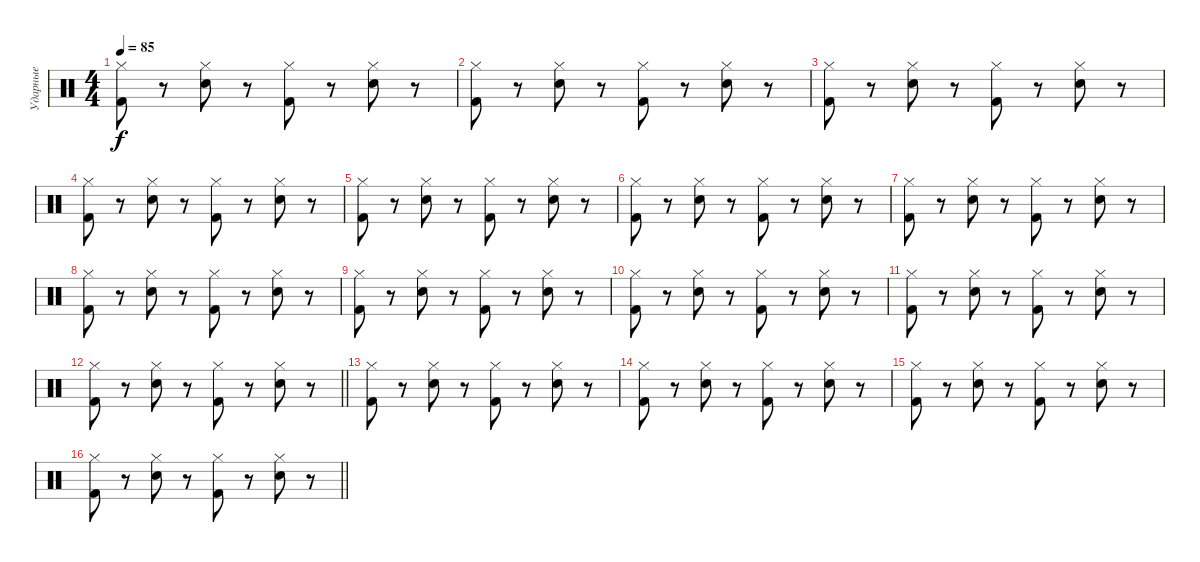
\track ("Ударные" "Ударные") {instrument percussion}
\staff {score}
\articulation defaults
\ts (4 4)
\tempo 85
\clef neutral
\ks c
("Kick (hit) 2" "Hi-Hat (closed)").8{dy f} r.8 ("Electric Snare (hit)" "Hi-Hat (closed)").8 r.8 ("Kick (hit) 2" "Hi-Hat (closed)").8 r.8 ("Electric Snare (hit)" "Hi-Hat (closed)").8 r.8 |
("Kick (hit) 2" "Hi-Hat (closed)").8 r.8 ("Electric Snare (hit)" "Hi-Hat (closed)").8 r.8 ("Kick (hit) 2" "Hi-Hat (closed)").8 r.8 ("Electric Snare (hit)" "Hi-Hat (closed)").8 r.8 |
("Kick (hit) 2" "Hi-Hat (closed)").8 r.8 ("Electric Snare (hit)" "Hi-Hat (closed)").8 r.8 ("Kick (hit) 2" "Hi-Hat (closed)").8 r.8 ("Electric Snare (hit)" "Hi-Hat (closed)").8 r.8 |
("Kick (hit) 2" "Hi-Hat (closed)").8 r.8 ("Electric Snare (hit)" "Hi-Hat (closed)").8 r.8 ("Kick (hit) 2" "Hi-Hat (closed)").8 r.8 ("Electric Snare (hit)" "Hi-Hat (closed)").8 r.8 |
("Kick (hit) 2" "Hi-Hat (closed)").8 r.8 ("Electric Snare (hit)" "Hi-Hat (closed)").8 r.8 ("Kick (hit) 2" "Hi-Hat (closed)").8 r.8 ("Electric Snare (hit)" "Hi-Hat (closed)").8 r.8 |
("Kick (hit) 2" "Hi-Hat (closed)").8 r.8 ("Electric Snare (hit)" "Hi-Hat (closed)").8 r.8 ("Kick (hit) 2" "Hi-Hat (closed)").8 r.8 ("Electric Snare (hit)" "Hi-Hat (closed)").8 r.8 |
("Kick (hit) 2" "Hi-Hat (closed)").8 r.8 ("Electric Snare (hit)" "Hi-Hat (closed)").8 r.8 ("Kick (hit) 2" "Hi-Hat (closed)").8 r.8 ("Electric Snare (hit)" "Hi-Hat (closed)").8 r.8 |
("Kick (hit) 2" "Hi-Hat (closed)").8 r.8 ("Electric Snare (hit)" "Hi-Hat (closed)").8 r.8 ("Kick (hit) 2" "Hi-Hat (closed)").8 r.8 ("Electric Snare (hit)" "Hi-Hat (closed)").8 r.8 |
("Kick (hit) 2" "Hi-Hat (closed)").8 r.8 ("Electric Snare (hit)" "Hi-Hat (closed)").8 r.8 ("Kick (hit) 2" "Hi-Hat (closed)").8 r.8 ("Electric Snare (hit)" "Hi-Hat (closed)").8 r.8 |
("Kick (hit) 2" "Hi-Hat (closed)").8 r.8 ("Electric Snare (hit)" "Hi-Hat (closed)").8 r.8 ("Kick (hit) 2" "Hi-Hat (closed)").8 r.8 ("Electric Snare (hit)" "Hi-Hat (closed)").8 r.8 |
("Kick (hit) 2" "Hi-Hat (closed)").8 r.8 ("Electric Snare (hit)" "Hi-Hat (closed)").8 r.8 ("Kick (hit) 2" "Hi-Hat (closed)").8 r.8 ("Electric Snare (hit)" "Hi-Hat (closed)").8 r.8 |
\barLineRight lightlight
("Kick (hit) 2" "Hi-Hat (closed)").8 r.8 ("Electric Snare (hit)" "Hi-Hat (closed)").8 r.8 ("Kick (hit) 2" "Hi-Hat (closed)").8 r.8 ("Electric Snare (hit)" "Hi-Hat (closed)").8 r.8 |
("Kick (hit) 2" "Hi-Hat (closed)").8 r.8 ("Electric Snare (hit)" "Hi-Hat (closed)").8 r.8 ("Kick (hit) 2" "Hi-Hat (closed)").8 r.8 ("Electric Snare (hit)" "Hi-Hat (closed)").8 r.8 |
("Kick (hit) 2" "Hi-Hat (closed)").8 r.8 ("Electric Snare (hit)" "Hi-Hat (closed)").8 r.8 ("Kick (hit) 2" "Hi-Hat (closed)").8 r.8 ("Electric Snare (hit)" "Hi-Hat (closed)").8 r.8 |
("Kick (hit) 2" "Hi-Hat (closed)").8 r.8 ("Electric Snare (hit)" "Hi-Hat (closed)").8 r.8 ("Kick (hit) 2" "Hi-Hat (closed)").8 r.8 ("Electric Snare (hit)" "Hi-Hat (closed)").8 r.8 |
\barLineRight lightlight
("Kick (hit) 2" "Hi-Hat (closed)").8 r.8 ("Electric Snare (hit)" "Hi-Hat (closed)").8 r.8 ("Kick (hit) 2" "Hi-Hat (closed)").8 r.8 ("Electric Snare (hit)" "Hi-Hat (closed)").8 r.8
